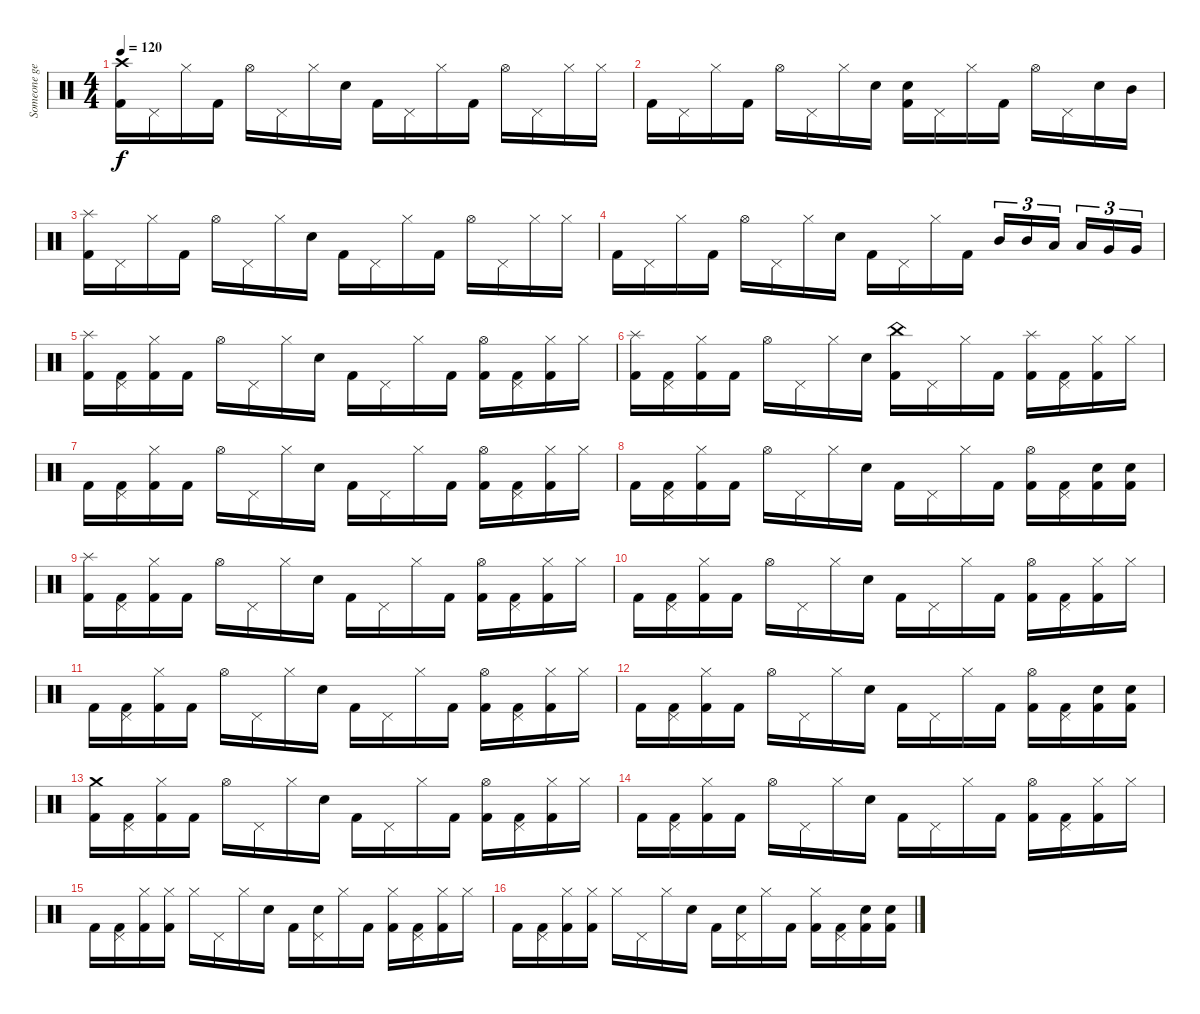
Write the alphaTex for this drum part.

\track ("Someone get me Neil Peart" "Someone ge") {instrument percussion}
\staff {score}
\articulation defaults
\ts (4 4)
\tempo 120
\clef neutral
\ks c
("Crash high (hit)" "Kick (hit) 2").16{dy f} "Pedal Hi-Hat (hit)".16 "Hi-Hat (closed)".16 "Kick (hit) 2".16 "Hi-Hat (open)".16 "Pedal Hi-Hat (hit)".16 "Hi-Hat (closed)".16 "Snare (hit) 2".16 "Kick (hit) 2".16 "Pedal Hi-Hat (hit)".16 "Hi-Hat (closed)".16 "Kick (hit) 2".16 "Hi-Hat (open)".16 "Pedal Hi-Hat (hit)".16 "Hi-Hat (closed)".16 "Hi-Hat (closed)".16 |
"Kick (hit) 2".16 "Pedal Hi-Hat (hit)".16 "Hi-Hat (closed)".16 "Kick (hit) 2".16 "Hi-Hat (open)".16 "Pedal Hi-Hat (hit)".16 "Hi-Hat (closed)".16 "Snare (hit) 2".16 ("Snare (hit) 2" "Kick (hit) 2").16 "Pedal Hi-Hat (hit)".16 "Hi-Hat (closed)".16 "Kick (hit) 2".16 "Hi-Hat (open)".16 "Pedal Hi-Hat (hit)".16 "Snare (hit) 2".16 "Mid Tom (hit)".16 |
("Splash (hit)" "Kick (hit) 2").16 "Pedal Hi-Hat (hit)".16 "Hi-Hat (closed)".16 "Kick (hit) 2".16 "Hi-Hat (open)".16 "Pedal Hi-Hat (hit)".16 "Hi-Hat (closed)".16 "Snare (hit) 2".16 "Kick (hit) 2".16 "Pedal Hi-Hat (hit)".16 "Hi-Hat (closed)".16 "Kick (hit) 2".16 "Hi-Hat (open)".16 "Pedal Hi-Hat (hit)".16 "Hi-Hat (closed)".16 "Hi-Hat (closed)".16 |
"Kick (hit) 2".16 "Pedal Hi-Hat (hit)".16 "Hi-Hat (closed)".16 "Kick (hit) 2".16 "Hi-Hat (open)".16 "Pedal Hi-Hat (hit)".16 "Hi-Hat (closed)".16 "Snare (hit) 2".16 "Kick (hit) 2".16 "Pedal Hi-Hat (hit)".16 "Hi-Hat (closed)".16 "Kick (hit) 2".16 "Mid Tom (hit)".16{tu (3 2)} "Mid Tom (hit)".16{tu (3 2)} "Low Tom (hit)".16{tu (3 2) beam splitsecondary} "Low Tom (hit)".16{tu (3 2)} "Very Low Tom (hit)".16{tu (3 2)} "Very Low Tom (hit)".16{tu (3 2)} |
("Splash (hit)" "Kick (hit) 2").16 ("Pedal Hi-Hat (hit)" "Kick (hit) 2").16 ("Hi-Hat (closed)" "Kick (hit) 2").16 "Kick (hit) 2".16 "Hi-Hat (open)".16 "Pedal Hi-Hat (hit)".16 "Hi-Hat (closed)".16 "Snare (hit) 2".16 "Kick (hit) 2".16 "Pedal Hi-Hat (hit)".16 "Hi-Hat (closed)".16 "Kick (hit) 2".16 ("Hi-Hat (open)" "Kick (hit) 2").16 ("Pedal Hi-Hat (hit)" "Kick (hit) 2").16 ("Hi-Hat (closed)" "Kick (hit) 2").16 "Hi-Hat (closed)".16 |
("Splash (hit)" "Kick (hit) 2").16 ("Pedal Hi-Hat (hit)" "Kick (hit) 2").16 ("Hi-Hat (closed)" "Kick (hit) 2").16 "Kick (hit) 2".16 "Hi-Hat (open)".16 "Pedal Hi-Hat (hit)".16 "Hi-Hat (closed)".16 "Snare (hit) 2".16 ("China (hit)" "Kick (hit) 2").16 "Pedal Hi-Hat (hit)".16 "Hi-Hat (closed)".16 "Kick (hit) 2".16 ("Splash (hit)" "Kick (hit) 2").16 ("Pedal Hi-Hat (hit)" "Kick (hit) 2").16 ("Hi-Hat (closed)" "Kick (hit) 2").16 "Hi-Hat (closed)".16 |
"Kick (hit) 2".16 ("Pedal Hi-Hat (hit)" "Kick (hit) 2").16 ("Hi-Hat (closed)" "Kick (hit) 2").16 "Kick (hit) 2".16 "Hi-Hat (open)".16 "Pedal Hi-Hat (hit)".16 "Hi-Hat (closed)".16 "Snare (hit) 2".16 "Kick (hit) 2".16 "Pedal Hi-Hat (hit)".16 "Hi-Hat (closed)".16 "Kick (hit) 2".16 ("Hi-Hat (open)" "Kick (hit) 2").16 ("Pedal Hi-Hat (hit)" "Kick (hit) 2").16 ("Hi-Hat (closed)" "Kick (hit) 2").16 "Hi-Hat (closed)".16 |
"Kick (hit) 2".16 ("Pedal Hi-Hat (hit)" "Kick (hit) 2").16 ("Hi-Hat (closed)" "Kick (hit) 2").16 "Kick (hit) 2".16 "Hi-Hat (open)".16 "Pedal Hi-Hat (hit)".16 "Hi-Hat (closed)".16 "Snare (hit) 2".16 "Kick (hit) 2".16 "Pedal Hi-Hat (hit)".16 "Hi-Hat (closed)".16 "Kick (hit) 2".16 ("Hi-Hat (open)" "Kick (hit) 2").16 ("Pedal Hi-Hat (hit)" "Kick (hit) 2").16 ("Snare (hit) 2" "Kick (hit) 2").16 ("Snare (hit) 2" "Kick (hit) 2").16 |
("Splash (hit)" "Kick (hit) 2").16 ("Pedal Hi-Hat (hit)" "Kick (hit) 2").16 ("Hi-Hat (closed)" "Kick (hit) 2").16 "Kick (hit) 2".16 "Hi-Hat (open)".16 "Pedal Hi-Hat (hit)".16 "Hi-Hat (closed)".16 "Snare (hit) 2".16 "Kick (hit) 2".16 "Pedal Hi-Hat (hit)".16 "Hi-Hat (closed)".16 "Kick (hit) 2".16 ("Hi-Hat (open)" "Kick (hit) 2").16 ("Pedal Hi-Hat (hit)" "Kick (hit) 2").16 ("Hi-Hat (closed)" "Kick (hit) 2").16 "Hi-Hat (closed)".16 |
"Kick (hit) 2".16 ("Pedal Hi-Hat (hit)" "Kick (hit) 2").16 ("Hi-Hat (closed)" "Kick (hit) 2").16 "Kick (hit) 2".16 "Hi-Hat (open)".16 "Pedal Hi-Hat (hit)".16 "Hi-Hat (closed)".16 "Snare (hit) 2".16 "Kick (hit) 2".16 "Pedal Hi-Hat (hit)".16 "Hi-Hat (closed)".16 "Kick (hit) 2".16 ("Hi-Hat (open)" "Kick (hit) 2").16 ("Pedal Hi-Hat (hit)" "Kick (hit) 2").16 ("Hi-Hat (closed)" "Kick (hit) 2").16 "Hi-Hat (closed)".16 |
"Kick (hit) 2".16 ("Pedal Hi-Hat (hit)" "Kick (hit) 2").16 ("Hi-Hat (closed)" "Kick (hit) 2").16 "Kick (hit) 2".16 "Hi-Hat (open)".16 "Pedal Hi-Hat (hit)".16 "Hi-Hat (closed)".16 "Snare (hit) 2".16 "Kick (hit) 2".16 "Pedal Hi-Hat (hit)".16 "Hi-Hat (closed)".16 "Kick (hit) 2".16 ("Hi-Hat (open)" "Kick (hit) 2").16 ("Pedal Hi-Hat (hit)" "Kick (hit) 2").16 ("Hi-Hat (closed)" "Kick (hit) 2").16 "Hi-Hat (closed)".16 |
"Kick (hit) 2".16 ("Pedal Hi-Hat (hit)" "Kick (hit) 2").16 ("Hi-Hat (closed)" "Kick (hit) 2").16 "Kick (hit) 2".16 "Hi-Hat (open)".16 "Pedal Hi-Hat (hit)".16 "Hi-Hat (closed)".16 "Snare (hit) 2".16 "Kick (hit) 2".16 "Pedal Hi-Hat (hit)".16 "Hi-Hat (closed)".16 "Kick (hit) 2".16 ("Hi-Hat (open)" "Kick (hit) 2").16 ("Pedal Hi-Hat (hit)" "Kick (hit) 2").16 ("Snare (hit) 2" "Kick (hit) 2").16 ("Snare (hit) 2" "Kick (hit) 2").16 |
("Crash medium (hit)" "Kick (hit) 2").16 ("Pedal Hi-Hat (hit)" "Kick (hit) 2").16 ("Hi-Hat (closed)" "Kick (hit) 2").16 "Kick (hit) 2".16 "Hi-Hat (open)".16 "Pedal Hi-Hat (hit)".16 "Hi-Hat (closed)".16 "Snare (hit) 2".16 "Kick (hit) 2".16 "Pedal Hi-Hat (hit)".16 "Hi-Hat (closed)".16 "Kick (hit) 2".16 ("Hi-Hat (open)" "Kick (hit) 2").16 ("Pedal Hi-Hat (hit)" "Kick (hit) 2").16 ("Hi-Hat (closed)" "Kick (hit) 2").16 "Hi-Hat (closed)".16 |
"Kick (hit) 2".16 ("Pedal Hi-Hat (hit)" "Kick (hit) 2").16 ("Hi-Hat (closed)" "Kick (hit) 2").16 "Kick (hit) 2".16 "Hi-Hat (open)".16 "Pedal Hi-Hat (hit)".16 "Hi-Hat (closed)".16 "Snare (hit) 2".16 "Kick (hit) 2".16 "Pedal Hi-Hat (hit)".16 "Hi-Hat (closed)".16 "Kick (hit) 2".16 ("Hi-Hat (open)" "Kick (hit) 2").16 ("Pedal Hi-Hat (hit)" "Kick (hit) 2").16 ("Hi-Hat (closed)" "Kick (hit) 2").16 "Hi-Hat (closed)".16 |
"Kick (hit) 2".16 ("Pedal Hi-Hat (hit)" "Kick (hit) 2").16 ("Hi-Hat (closed)" "Kick (hit) 2").16 ("Hi-Hat (closed)" "Kick (hit) 2").16 "Hi-Hat (closed)".16 "Pedal Hi-Hat (hit)".16 "Hi-Hat (closed)".16 "Snare (hit) 2".16 "Kick (hit) 2".16 ("Pedal Hi-Hat (hit)" "Snare (hit) 2").16 "Hi-Hat (closed)".16 "Kick (hit) 2".16 ("Hi-Hat (closed)" "Kick (hit) 2").16 ("Pedal Hi-Hat (hit)" "Kick (hit) 2").16 ("Hi-Hat (closed)" "Kick (hit) 2").16 "Hi-Hat (closed)".16 |
"Kick (hit) 2".16 ("Pedal Hi-Hat (hit)" "Kick (hit) 2").16 ("Hi-Hat (closed)" "Kick (hit) 2").16 ("Hi-Hat (closed)" "Kick (hit) 2").16 "Hi-Hat (closed)".16 "Pedal Hi-Hat (hit)".16 "Hi-Hat (closed)".16 "Snare (hit) 2".16 "Kick (hit) 2".16 ("Pedal Hi-Hat (hit)" "Snare (hit) 2").16 "Hi-Hat (closed)".16 "Kick (hit) 2".16 ("Hi-Hat (closed)" "Kick (hit) 2").16 ("Pedal Hi-Hat (hit)" "Kick (hit) 2").16 ("Snare (hit) 2" "Kick (hit) 2").16 ("Snare (hit) 2" "Kick (hit) 2").16
